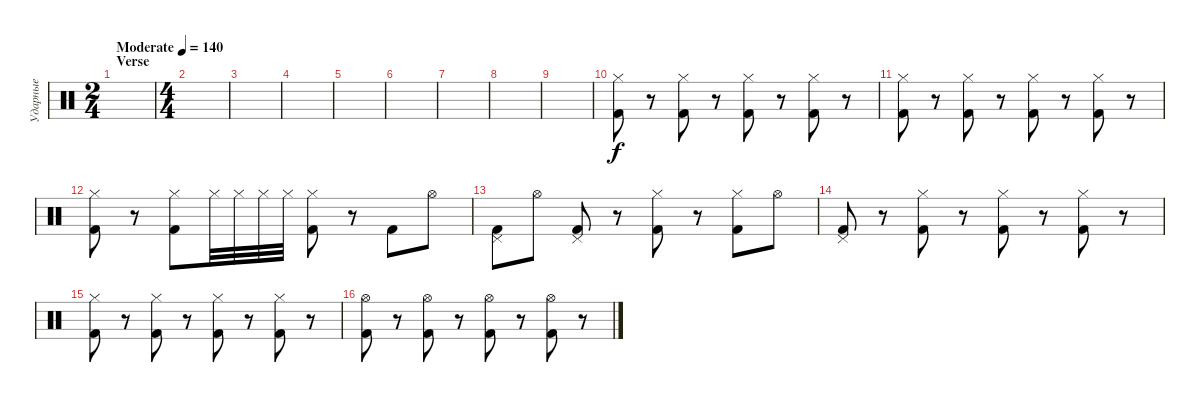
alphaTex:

\track ("Ударные" "Ударные") {instrument percussion}
\staff {score}
\articulation defaults
\ts (2 4)
\section ("" "Verse")
\tempo (140 "Moderate")
\clef neutral
\ks c
|
\ts (4 4)
|
|
|
|
|
|
|
|
("Hi-Hat (closed)" "Kick (hit) 2").8 r.8 ("Hi-Hat (closed)" "Kick (hit) 2").8 r.8 ("Hi-Hat (closed)" "Kick (hit) 2").8 r.8 ("Hi-Hat (closed)" "Kick (hit) 2").8 r.8 |
("Hi-Hat (closed)" "Kick (hit) 2").8 r.8 ("Hi-Hat (closed)" "Kick (hit) 2").8 r.8 ("Hi-Hat (closed)" "Kick (hit) 2").8 r.8 ("Hi-Hat (closed)" "Kick (hit) 2").8 r.8 |
("Hi-Hat (closed)" "Kick (hit) 2").8 r.8 ("Hi-Hat (closed)" "Kick (hit) 2").8 "Hi-Hat (closed)".32 "Hi-Hat (closed)".32 "Hi-Hat (closed)".32 "Hi-Hat (closed)".32 ("Hi-Hat (closed)" "Kick (hit) 2").8 r.8 "Kick (hit) 2".8 "Hi-Hat (open)".8 |
("Pedal Hi-Hat (hit)" "Kick (hit) 2").8 "Hi-Hat (open)".8 ("Pedal Hi-Hat (hit)" "Kick (hit) 2").8 r.8 ("Hi-Hat (closed)" "Kick (hit) 2").8 r.8 ("Hi-Hat (closed)" "Kick (hit) 2").8 "Hi-Hat (open)".8 |
("Pedal Hi-Hat (hit)" "Kick (hit) 2").8 r.8 ("Hi-Hat (closed)" "Kick (hit) 2").8 r.8 ("Hi-Hat (closed)" "Kick (hit) 2").8 r.8 ("Hi-Hat (closed)" "Kick (hit) 2").8 r.8 |
("Hi-Hat (closed)" "Kick (hit) 2").8 r.8 ("Hi-Hat (closed)" "Kick (hit) 2").8 r.8 ("Hi-Hat (closed)" "Kick (hit) 2").8 r.8 ("Hi-Hat (closed)" "Kick (hit) 2").8 r.8 |
("Hi-Hat (open)" "Kick (hit) 2").8 r.8 ("Hi-Hat (open)" "Kick (hit) 2").8 r.8 ("Hi-Hat (open)" "Kick (hit) 2").8 r.8 ("Hi-Hat (open)" "Kick (hit) 2").8 r.8
